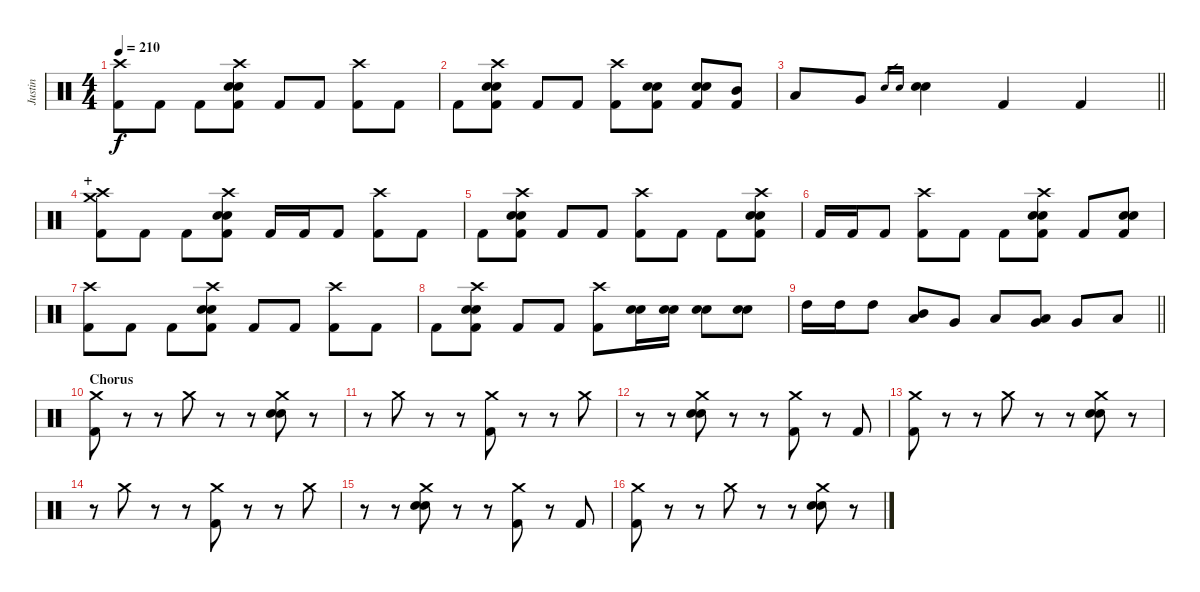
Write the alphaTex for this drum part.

\track ("Justin" "Justin") {instrument percussion}
\staff {score}
\articulation defaults
\ts (4 4)
\tempo 210
\clef neutral
\ks c
("Crash high (hit)" "Kick (hit) 2").8{dy f} "Kick (hit) 2".8 "Kick (hit) 2".8 ("Crash high (hit)" "Electric Snare (hit)" "Snare (hit) 2" "Kick (hit) 2").8 "Kick (hit) 2".8 "Kick (hit) 2".8 ("Crash high (hit)" "Kick (hit) 2").8 "Kick (hit) 2".8 |
"Kick (hit) 2".8 ("Crash high (hit)" "Electric Snare (hit)" "Snare (hit) 2" "Kick (hit) 2").8 "Kick (hit) 2".8 "Kick (hit) 2".8 ("Crash high (hit)" "Kick (hit) 2").8 ("Electric Snare (hit)" "Snare (hit) 2" "Kick (hit) 2").8 ("Electric Snare (hit)" "Snare (hit) 2" "Kick (hit) 2").8 ("Mid Tom (hit)" "Kick (hit) 2").8 |
\barLineRight lightlight "Low Tom (hit)".8 "Very Low Tom (hit)".8 "Electric Snare (hit)".16{gr} "Snare (hit) 2".16{gr}
("Electric Snare (hit)" "Snare (hit) 2").4 "Kick (hit) 2".4 "Kick (hit) 2".4 |
\section ("" "+")
("Crash high (hit)" "Crash medium (hit)" "Kick (hit) 2").8 "Kick (hit) 2".8 "Kick (hit) 2".8 ("Crash high (hit)" "Electric Snare (hit)" "Snare (hit) 2" "Kick (hit) 2").8 "Kick (hit) 2".16 "Kick (hit) 2".16 "Kick (hit) 2".8 ("Crash high (hit)" "Kick (hit) 2").8 "Kick (hit) 2".8 |
"Kick (hit) 2".8 ("Crash high (hit)" "Electric Snare (hit)" "Snare (hit) 2" "Kick (hit) 2").8 "Kick (hit) 2".8 "Kick (hit) 2".8 ("Crash high (hit)" "Kick (hit) 2").8 "Kick (hit) 2".8 "Kick (hit) 2".8 ("Crash high (hit)" "Electric Snare (hit)" "Snare (hit) 2" "Kick (hit) 2").8 |
"Kick (hit) 2".16 "Kick (hit) 2".16 "Kick (hit) 2".8 ("Crash high (hit)" "Kick (hit) 2").8 "Kick (hit) 2".8 "Kick (hit) 2".8 ("Crash high (hit)" "Electric Snare (hit)" "Snare (hit) 2" "Kick (hit) 2").8 "Kick (hit) 2".8 ("Electric Snare (hit)" "Snare (hit) 2" "Kick (hit) 2").8 |
("Crash high (hit)" "Kick (hit) 2").8 "Kick (hit) 2".8 "Kick (hit) 2".8 ("Crash high (hit)" "Electric Snare (hit)" "Snare (hit) 2" "Kick (hit) 2").8 "Kick (hit) 2".8 "Kick (hit) 2".8 ("Crash high (hit)" "Kick (hit) 2").8 "Kick (hit) 2".8 |
"Kick (hit) 2".8 ("Crash high (hit)" "Electric Snare (hit)" "Snare (hit) 2" "Kick (hit) 2").8 "Kick (hit) 2".8 "Kick (hit) 2".8 ("Crash high (hit)" "Kick (hit) 2").8 ("Electric Snare (hit)" "Snare (hit) 2").16 ("Electric Snare (hit)" "Snare (hit) 2").16 ("Electric Snare (hit)" "Snare (hit) 2").8 ("Electric Snare (hit)" "Snare (hit) 2").8 |
\barLineRight lightlight "High Tom (hit)".16 "High Tom (hit)".16 "High Tom (hit)".8
("Mid Tom (hit)" "Low Tom (hit)").8 "Very Low Tom (hit)".8 "Low Floor Tom (hit)".8 ("Low Tom (hit)" "Very Low Tom (hit)").8 "Very Low Tom (hit)".8 "Low Floor Tom (hit)".8 |
\section ("" "Chorus")
("Crash medium (hit)" "Kick (hit) 2").8 r.8 r.8 "Crash medium (hit)".8 r.8 r.8 ("Crash medium (hit)" "Electric Snare (hit)" "Snare (hit) 2").8 r.8 |
r.8 "Crash medium (hit)".8 r.8 r.8 ("Crash medium (hit)" "Kick (hit) 2").8 r.8 r.8 "Crash medium (hit)".8 |
r.8 r.8 ("Crash medium (hit)" "Electric Snare (hit)" "Snare (hit) 2").8 r.8 r.8 ("Crash medium (hit)" "Kick (hit) 2").8 r.8 "Kick (hit) 2".8 |
("Crash medium (hit)" "Kick (hit) 2").8 r.8 r.8 "Crash medium (hit)".8 r.8 r.8 ("Crash medium (hit)" "Electric Snare (hit)" "Snare (hit) 2").8 r.8 |
r.8 "Crash medium (hit)".8 r.8 r.8 ("Crash medium (hit)" "Kick (hit) 2").8 r.8 r.8 "Crash medium (hit)".8 |
r.8 r.8 ("Crash medium (hit)" "Electric Snare (hit)" "Snare (hit) 2").8 r.8 r.8 ("Crash medium (hit)" "Kick (hit) 2").8 r.8 "Kick (hit) 2".8 |
("Crash medium (hit)" "Kick (hit) 2").8 r.8 r.8 "Crash medium (hit)".8 r.8 r.8 ("Crash medium (hit)" "Electric Snare (hit)" "Snare (hit) 2").8 r.8
